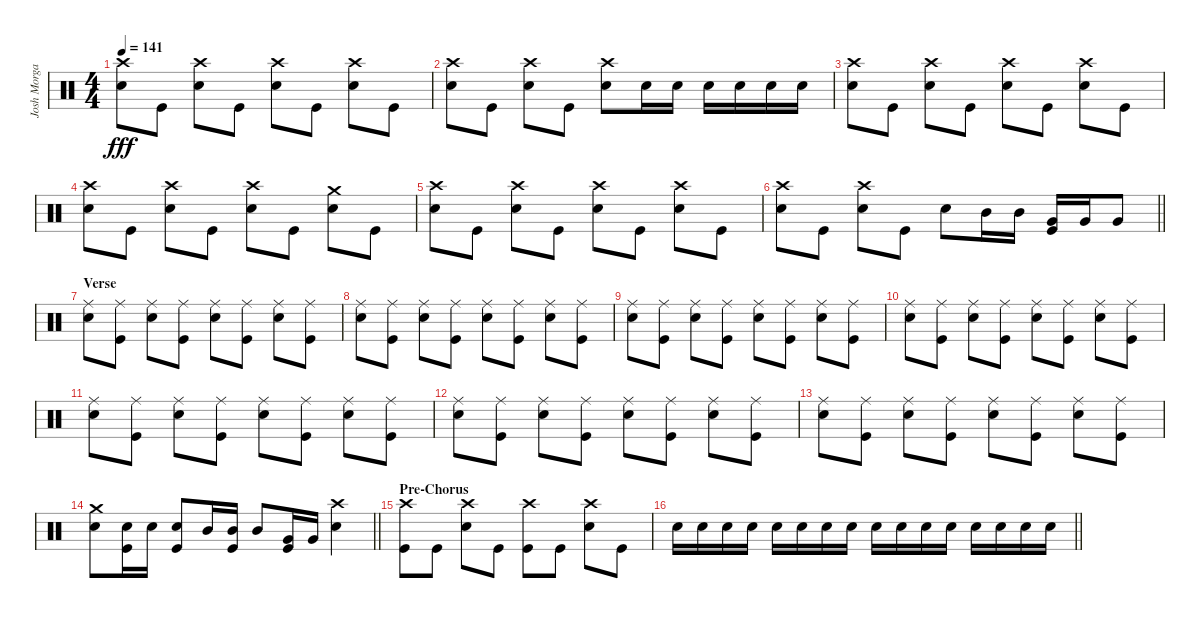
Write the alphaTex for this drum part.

\track ("Josh Morgan" "Josh Morga") {instrument percussion}
\staff {score}
\articulation defaults
\ts (4 4)
\tempo 141
\clef neutral
\ks c
("Crash high (hit)" "Electric Snare (hit)").8{dy fff} "Kick (hit)".8 ("Crash high (hit)" "Electric Snare (hit)").8 "Kick (hit)".8 ("Crash high (hit)" "Electric Snare (hit)").8 "Kick (hit)".8 ("Crash high (hit)" "Electric Snare (hit)").8 "Kick (hit)".8 |
("Crash high (hit)" "Electric Snare (hit)").8 "Kick (hit)".8 ("Crash high (hit)" "Electric Snare (hit)").8 "Kick (hit)".8 ("Crash high (hit)" "Electric Snare (hit)").8 "Electric Snare (hit)".16 "Electric Snare (hit)".16 "Electric Snare (hit)".16 "Electric Snare (hit)".16 "Electric Snare (hit)".16 "Electric Snare (hit)".16 |
("Crash high (hit)" "Electric Snare (hit)").8 "Kick (hit)".8 ("Crash high (hit)" "Electric Snare (hit)").8 "Kick (hit)".8 ("Crash high (hit)" "Electric Snare (hit)").8 "Kick (hit)".8 ("Crash high (hit)" "Electric Snare (hit)").8 "Kick (hit)".8 |
("Crash high (hit)" "Electric Snare (hit)").8 "Kick (hit)".8 ("Crash high (hit)" "Electric Snare (hit)").8 "Kick (hit)".8 ("Crash high (hit)" "Electric Snare (hit)").8 "Kick (hit)".8 ("Crash medium (hit)" "Electric Snare (hit)").8 "Kick (hit)".8 |
("Crash high (hit)" "Electric Snare (hit)").8 "Kick (hit)".8 ("Crash high (hit)" "Electric Snare (hit)").8 "Kick (hit)".8 ("Crash high (hit)" "Electric Snare (hit)").8 "Kick (hit)".8 ("Crash high (hit)" "Electric Snare (hit)").8 "Kick (hit)".8 |
\barLineRight lightlight
("Crash high (hit)" "Electric Snare (hit)").8 "Kick (hit)".8 ("Crash high (hit)" "Electric Snare (hit)").8 "Kick (hit)".8 "Electric Snare (hit)".8 "Mid Tom (hit)".16 "Mid Tom (hit)".16 ("Very Low Tom (hit)" "Kick (hit)").16 "Very Low Tom (hit)".16 "Very Low Tom (hit)".8 |
\section ("" "Verse")
("Ride (middle)" "Electric Snare (hit)").8 ("Ride (middle)" "Kick (hit)").8 ("Ride (middle)" "Electric Snare (hit)").8 ("Ride (middle)" "Kick (hit)").8 ("Ride (middle)" "Electric Snare (hit)").8 ("Ride (middle)" "Kick (hit)").8 ("Ride (middle)" "Electric Snare (hit)").8 ("Ride (middle)" "Kick (hit)").8 |
("Ride (middle)" "Electric Snare (hit)").8 ("Ride (middle)" "Kick (hit)").8 ("Ride (middle)" "Electric Snare (hit)").8 ("Ride (middle)" "Kick (hit)").8 ("Ride (middle)" "Electric Snare (hit)").8 ("Ride (middle)" "Kick (hit)").8 ("Ride (middle)" "Electric Snare (hit)").8 ("Ride (middle)" "Kick (hit)").8 |
("Ride (middle)" "Electric Snare (hit)").8 ("Ride (middle)" "Kick (hit)").8 ("Ride (middle)" "Electric Snare (hit)").8 ("Ride (middle)" "Kick (hit)").8 ("Ride (middle)" "Electric Snare (hit)").8 ("Ride (middle)" "Kick (hit)").8 ("Ride (middle)" "Electric Snare (hit)").8 ("Ride (middle)" "Kick (hit)").8 |
("Ride (middle)" "Electric Snare (hit)").8 ("Ride (middle)" "Kick (hit)").8 ("Ride (middle)" "Electric Snare (hit)").8 ("Ride (middle)" "Kick (hit)").8 ("Ride (middle)" "Electric Snare (hit)").8 ("Ride (middle)" "Kick (hit)").8 ("Ride (middle)" "Electric Snare (hit)").8 ("Ride (middle)" "Kick (hit)").8 |
("Ride (middle)" "Electric Snare (hit)").8 ("Ride (middle)" "Kick (hit)").8 ("Ride (middle)" "Electric Snare (hit)").8 ("Ride (middle)" "Kick (hit)").8 ("Ride (middle)" "Electric Snare (hit)").8 ("Ride (middle)" "Kick (hit)").8 ("Ride (middle)" "Electric Snare (hit)").8 ("Ride (middle)" "Kick (hit)").8 |
("Ride (middle)" "Electric Snare (hit)").8 ("Ride (middle)" "Kick (hit)").8 ("Ride (middle)" "Electric Snare (hit)").8 ("Ride (middle)" "Kick (hit)").8 ("Ride (middle)" "Electric Snare (hit)").8 ("Ride (middle)" "Kick (hit)").8 ("Ride (middle)" "Electric Snare (hit)").8 ("Ride (middle)" "Kick (hit)").8 |
("Ride (middle)" "Electric Snare (hit)").8 ("Ride (middle)" "Kick (hit)").8 ("Ride (middle)" "Electric Snare (hit)").8 ("Ride (middle)" "Kick (hit)").8 ("Ride (middle)" "Electric Snare (hit)").8 ("Ride (middle)" "Kick (hit)").8 ("Ride (middle)" "Electric Snare (hit)").8 ("Ride (middle)" "Kick (hit)").8 |
\barLineRight lightlight
("Crash medium (hit)" "Electric Snare (hit)").8 ("Electric Snare (hit)" "Kick (hit)").16 "Electric Snare (hit)".16 ("Electric Snare (hit)" "Kick (hit)").8 "Mid Tom (hit)".16 ("Mid Tom (hit)" "Kick (hit)").16 "Mid Tom (hit)".8 ("Very Low Tom (hit)" "Kick (hit)").16 "Very Low Tom (hit)".16 ("Crash high (hit)" "Electric Snare (hit)").4 |
\section ("" "Pre-Chorus")
("Crash high (hit)" "Kick (hit)").8 "Kick (hit)".8 ("Crash high (hit)" "Electric Snare (hit)").8 "Kick (hit)".8 ("Crash high (hit)" "Kick (hit)").8 "Kick (hit)".8 ("Crash high (hit)" "Electric Snare (hit)").8 "Kick (hit)".8 |
\barLineRight lightlight "Electric Snare (hit)".16 "Electric Snare (hit)".16 "Electric Snare (hit)".16 "Electric Snare (hit)".16 "Electric Snare (hit)".16 "Electric Snare (hit)".16 "Electric Snare (hit)".16 "Electric Snare (hit)".16 "Electric Snare (hit)".16 "Electric Snare (hit)".16 "Electric Snare (hit)".16 "Electric Snare (hit)".16 "Electric Snare (hit)".16 "Electric Snare (hit)".16 "Electric Snare (hit)".16 "Electric Snare (hit)".16
